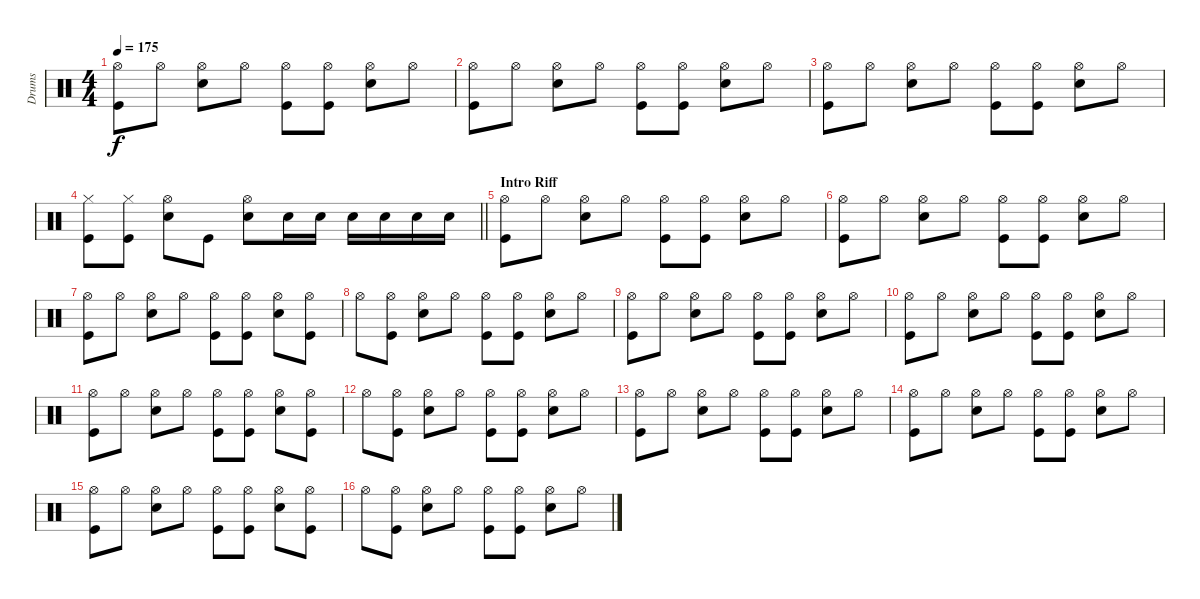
\track ("Drums" "Drums") {instrument percussion}
\staff {score}
\articulation defaults
\ts (4 4)
\tempo 175
\clef neutral
\ks c
("Hi-Hat (open)" "Kick (hit)").8{dy f} "Hi-Hat (open)".8 ("Hi-Hat (open)" "Snare (hit) 2").8 "Hi-Hat (open)".8 ("Hi-Hat (open)" "Kick (hit)").8 ("Hi-Hat (open)" "Kick (hit)").8 ("Hi-Hat (open)" "Snare (hit) 2").8 "Hi-Hat (open)".8 |
("Hi-Hat (open)" "Kick (hit)").8 "Hi-Hat (open)".8 ("Hi-Hat (open)" "Snare (hit) 2").8 "Hi-Hat (open)".8 ("Hi-Hat (open)" "Kick (hit)").8 ("Hi-Hat (open)" "Kick (hit)").8 ("Hi-Hat (open)" "Snare (hit) 2").8 "Hi-Hat (open)".8 |
("Hi-Hat (open)" "Kick (hit)").8 "Hi-Hat (open)".8 ("Hi-Hat (open)" "Snare (hit) 2").8 "Hi-Hat (open)".8 ("Hi-Hat (open)" "Kick (hit)").8 ("Hi-Hat (open)" "Kick (hit)").8 ("Hi-Hat (open)" "Snare (hit) 2").8 "Hi-Hat (open)".8 |
\barLineRight lightlight
("Hi-Hat (closed)" "Kick (hit)").8 ("Hi-Hat (closed)" "Kick (hit)").8 ("Hi-Hat (open)" "Snare (hit) 2").8 "Kick (hit)".8 ("Hi-Hat (open)" "Snare (hit) 2").8 "Snare (hit) 2".16 "Snare (hit) 2".16 "Snare (hit) 2".16 "Snare (hit) 2".16 "Snare (hit) 2".16 "Snare (hit) 2".16 |
\section ("" "Intro Riff")
("Hi-Hat (open)" "Kick (hit)").8 "Hi-Hat (open)".8 ("Hi-Hat (open)" "Snare (hit) 2").8 "Hi-Hat (open)".8 ("Hi-Hat (open)" "Kick (hit)").8 ("Hi-Hat (open)" "Kick (hit)").8 ("Hi-Hat (open)" "Snare (hit) 2").8 "Hi-Hat (open)".8 |
("Hi-Hat (open)" "Kick (hit)").8 "Hi-Hat (open)".8 ("Hi-Hat (open)" "Snare (hit) 2").8 "Hi-Hat (open)".8 ("Hi-Hat (open)" "Kick (hit)").8 ("Hi-Hat (open)" "Kick (hit)").8 ("Hi-Hat (open)" "Snare (hit) 2").8 "Hi-Hat (open)".8 |
("Hi-Hat (open)" "Kick (hit)").8 "Hi-Hat (open)".8 ("Hi-Hat (open)" "Snare (hit) 2").8 "Hi-Hat (open)".8 ("Hi-Hat (open)" "Kick (hit)").8 ("Hi-Hat (open)" "Kick (hit)").8 ("Hi-Hat (open)" "Snare (hit) 2").8 ("Hi-Hat (open)" "Kick (hit)").8 |
"Hi-Hat (open)".8 ("Hi-Hat (open)" "Kick (hit)").8 ("Hi-Hat (open)" "Snare (hit) 2").8 "Hi-Hat (open)".8 ("Hi-Hat (open)" "Kick (hit)").8 ("Hi-Hat (open)" "Kick (hit)").8 ("Hi-Hat (open)" "Snare (hit) 2").8 "Hi-Hat (open)".8 |
("Hi-Hat (open)" "Kick (hit)").8 "Hi-Hat (open)".8 ("Hi-Hat (open)" "Snare (hit) 2").8 "Hi-Hat (open)".8 ("Hi-Hat (open)" "Kick (hit)").8 ("Hi-Hat (open)" "Kick (hit)").8 ("Hi-Hat (open)" "Snare (hit) 2").8 "Hi-Hat (open)".8 |
("Hi-Hat (open)" "Kick (hit)").8 "Hi-Hat (open)".8 ("Hi-Hat (open)" "Snare (hit) 2").8 "Hi-Hat (open)".8 ("Hi-Hat (open)" "Kick (hit)").8 ("Hi-Hat (open)" "Kick (hit)").8 ("Hi-Hat (open)" "Snare (hit) 2").8 "Hi-Hat (open)".8 |
("Hi-Hat (open)" "Kick (hit)").8 "Hi-Hat (open)".8 ("Hi-Hat (open)" "Snare (hit) 2").8 "Hi-Hat (open)".8 ("Hi-Hat (open)" "Kick (hit)").8 ("Hi-Hat (open)" "Kick (hit)").8 ("Hi-Hat (open)" "Snare (hit) 2").8 ("Hi-Hat (open)" "Kick (hit)").8 |
"Hi-Hat (open)".8 ("Hi-Hat (open)" "Kick (hit)").8 ("Hi-Hat (open)" "Snare (hit) 2").8 "Hi-Hat (open)".8 ("Hi-Hat (open)" "Kick (hit)").8 ("Hi-Hat (open)" "Kick (hit)").8 ("Hi-Hat (open)" "Snare (hit) 2").8 "Hi-Hat (open)".8 |
("Hi-Hat (open)" "Kick (hit)").8 "Hi-Hat (open)".8 ("Hi-Hat (open)" "Snare (hit) 2").8 "Hi-Hat (open)".8 ("Hi-Hat (open)" "Kick (hit)").8 ("Hi-Hat (open)" "Kick (hit)").8 ("Hi-Hat (open)" "Snare (hit) 2").8 "Hi-Hat (open)".8 |
("Hi-Hat (open)" "Kick (hit)").8 "Hi-Hat (open)".8 ("Hi-Hat (open)" "Snare (hit) 2").8 "Hi-Hat (open)".8 ("Hi-Hat (open)" "Kick (hit)").8 ("Hi-Hat (open)" "Kick (hit)").8 ("Hi-Hat (open)" "Snare (hit) 2").8 "Hi-Hat (open)".8 |
("Hi-Hat (open)" "Kick (hit)").8 "Hi-Hat (open)".8 ("Hi-Hat (open)" "Snare (hit) 2").8 "Hi-Hat (open)".8 ("Hi-Hat (open)" "Kick (hit)").8 ("Hi-Hat (open)" "Kick (hit)").8 ("Hi-Hat (open)" "Snare (hit) 2").8 ("Hi-Hat (open)" "Kick (hit)").8 |
"Hi-Hat (open)".8 ("Hi-Hat (open)" "Kick (hit)").8 ("Hi-Hat (open)" "Snare (hit) 2").8 "Hi-Hat (open)".8 ("Hi-Hat (open)" "Kick (hit)").8 ("Hi-Hat (open)" "Kick (hit)").8 ("Hi-Hat (open)" "Snare (hit) 2").8 "Hi-Hat (open)".8
